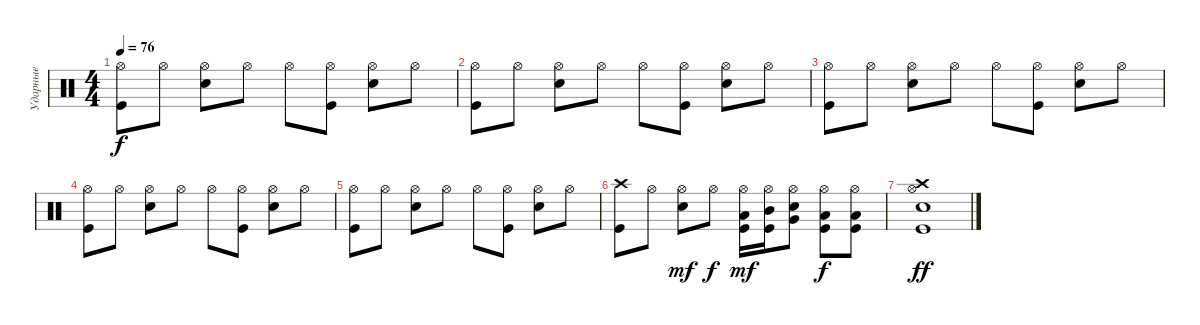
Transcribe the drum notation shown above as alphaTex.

\track ("Ударные" "Ударные") {instrument percussion}
\staff {score}
\articulation defaults
\ts (4 4)
\tempo 76
\clef neutral
\ks c
("Hi-Hat (open)" "Kick (hit)").8{dy f} "Hi-Hat (open)".8 ("Hi-Hat (open)" "Electric Snare (hit)").8 "Hi-Hat (open)".8 "Hi-Hat (open)".8 ("Hi-Hat (open)" "Kick (hit)").8 ("Hi-Hat (open)" "Electric Snare (hit)").8 "Hi-Hat (open)".8 |
("Hi-Hat (open)" "Kick (hit)").8 "Hi-Hat (open)".8 ("Hi-Hat (open)" "Electric Snare (hit)").8 "Hi-Hat (open)".8 "Hi-Hat (open)".8 ("Hi-Hat (open)" "Kick (hit)").8 ("Hi-Hat (open)" "Electric Snare (hit)").8 "Hi-Hat (open)".8 |
("Hi-Hat (open)" "Kick (hit)").8 "Hi-Hat (open)".8 ("Hi-Hat (open)" "Electric Snare (hit)").8 "Hi-Hat (open)".8 "Hi-Hat (open)".8 ("Hi-Hat (open)" "Kick (hit)").8 ("Hi-Hat (open)" "Electric Snare (hit)").8 "Hi-Hat (open)".8 |
("Hi-Hat (open)" "Kick (hit)").8 "Hi-Hat (open)".8 ("Hi-Hat (open)" "Electric Snare (hit)").8 "Hi-Hat (open)".8 "Hi-Hat (open)".8 ("Hi-Hat (open)" "Kick (hit)").8 ("Hi-Hat (open)" "Electric Snare (hit)").8 "Hi-Hat (open)".8 |
("Hi-Hat (open)" "Kick (hit)").8 "Hi-Hat (open)".8 ("Hi-Hat (open)" "Electric Snare (hit)").8 "Hi-Hat (open)".8 "Hi-Hat (open)".8 ("Hi-Hat (open)" "Kick (hit)").8 ("Hi-Hat (open)" "Electric Snare (hit)").8 "Hi-Hat (open)".8 |
("Kick (hit)" "Crash high (hit)").8 "Hi-Hat (open)".8 ("Electric Snare (hit)" "Hi-Hat (open)").8{dy mf} "Hi-Hat (open)".8{dy f} ("Kick (hit)" "Hi-Hat (open)" "Low Tom (hit)").16{dy mf} ("Kick (hit)" "Hi-Hat (open)" "Mid Tom (hit)").16 ("Electric Snare (hit)" "Hi-Hat (open)" "Very Low Tom (hit)").8 ("Kick (hit)" "Hi-Hat (open)" "Low Floor Tom (hit)").8{dy f} ("Kick (hit)" "Hi-Hat (open)" "Low Floor Tom (hit)").8 |
("Snare (hit) 2" "Hi-Hat (open)" "Crash high (hit)" "Kick (hit)").1{dy ff}
